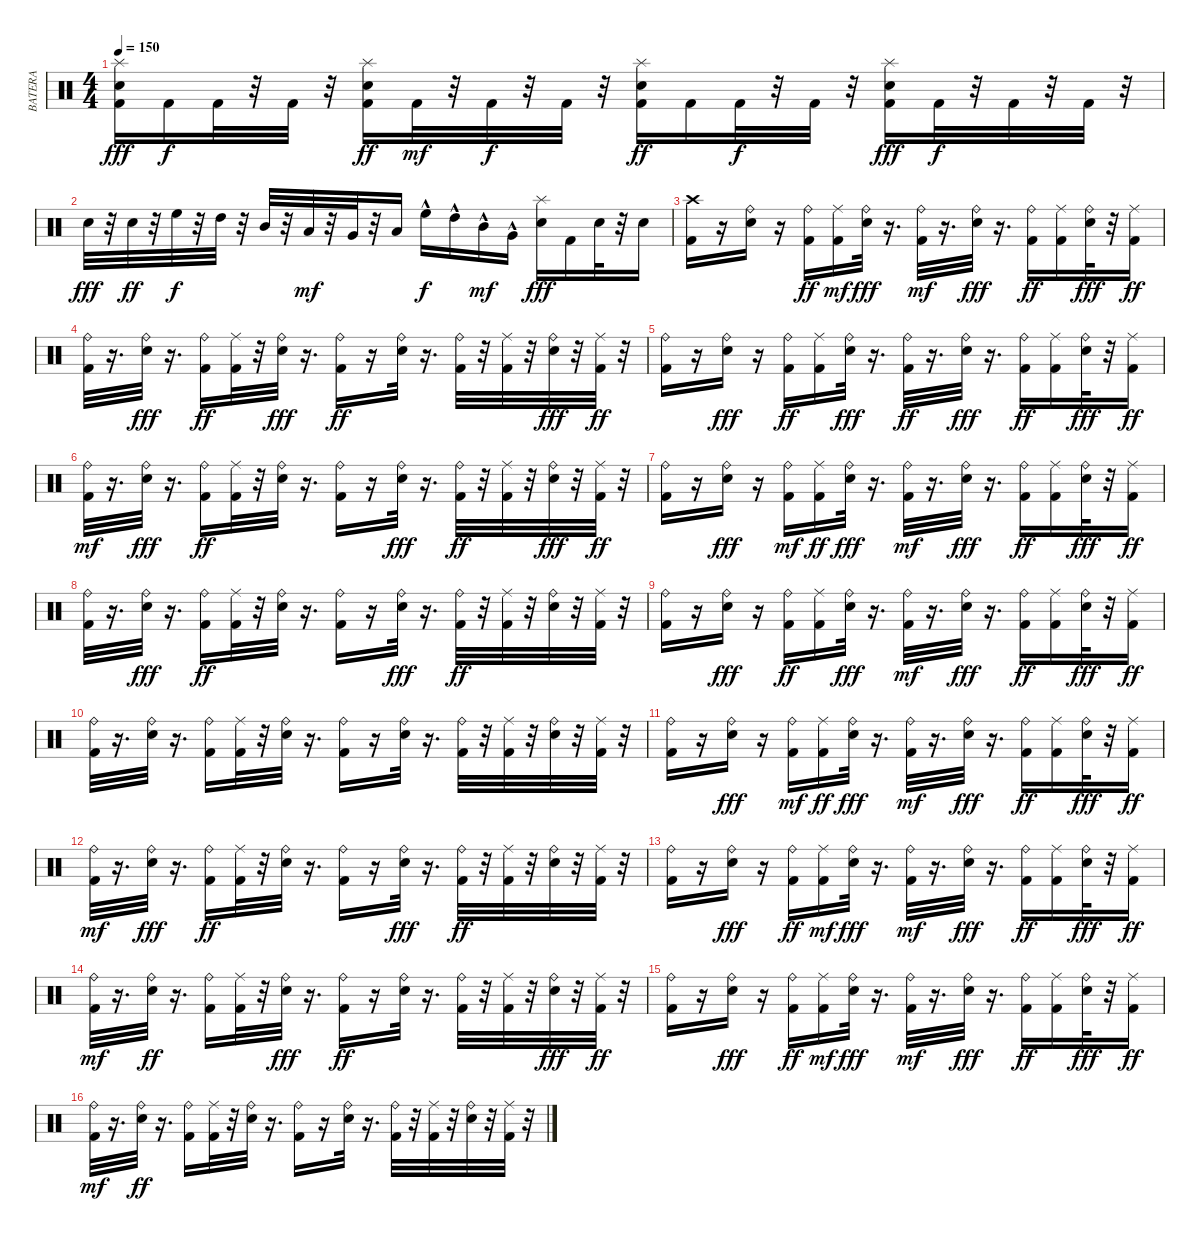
\track ("BATERA" "BATERA") {instrument percussion}
\staff {score}
\articulation defaults
\ts (4 4)
\tempo 150
\clef neutral
\ks c
("Kick (hit) 2" "Electric Snare (hit)" "Splash (hit)").16{dy fff} "Kick (hit) 2".16{dy f} "Kick (hit) 2".32 r.32 "Kick (hit) 2".32 r.32 ("Splash (hit)" "Electric Snare (hit)" "Kick (hit) 2").16{dy ff} "Kick (hit) 2".32{dy mf} r.32 "Kick (hit) 2".32{dy f} r.32 "Kick (hit) 2".32 r.32 ("Splash (hit)" "Electric Snare (hit)" "Kick (hit) 2").16{dy ff} "Kick (hit) 2".16 "Kick (hit) 2".32{dy f} r.32 "Kick (hit) 2".32 r.32 ("Kick (hit) 2" "Splash (hit)" "Electric Snare (hit)").16{dy fff} "Kick (hit) 2".32{dy f} r.32 "Kick (hit) 2".32 r.32 "Kick (hit) 2".32 r.32 |
"Electric Snare (hit)".32{dy fff} r.32 "Electric Snare (hit)".32{dy ff} r.32 "High Floor Tom (hit)".32{dy f} r.32 "High Tom (hit)".32 r.32 "Mid Tom (hit)".32 r.32 "Low Tom (hit)".32{dy mf} r.32 "Very Low Tom (hit)".32 r.32 "Low Floor Tom (hit)".16 "High Floor Tom (hit)"{hac}.16{dy f} "High Tom (hit)"{hac}.16 "Mid Tom (hit)"{hac}.16{dy mf} "Very Low Tom (hit)"{hac}.16 ("Splash (hit)" "Electric Snare (hit)").16{dy fff} "Kick (hit) 2".16 "Electric Snare (hit)".32 r.32 "Electric Snare (hit)".16 |
("Kick (hit) 2" "Crash high (hit)").16 r.16 ("Electric Snare (hit)" "Ride (bell)").16 r.16 ("Ride (bell)" "Kick (hit) 2").16{dy ff} ("Kick (hit) 2" "Ride (middle)").16{dy mf} ("Ride (bell)" "Electric Snare (hit)").32{dy fff} r.16{d} ("Kick (hit) 2" "Ride (bell)").32{dy mf} r.16{d} ("Electric Snare (hit)" "Ride (bell)").32{dy fff} r.16{d} ("Kick (hit) 2" "Ride (bell)").16{dy ff} ("Kick (hit) 2" "Ride (middle)").16 ("Electric Snare (hit)" "Ride (bell)").32{dy fff} r.32 ("Ride (middle)" "Kick (hit) 2").16{dy ff} |
("Ride (bell)" "Kick (hit) 2").32 r.16{d} ("Ride (bell)" "Electric Snare (hit)").32{dy fff} r.16{d} ("Ride (bell)" "Kick (hit) 2").16{dy ff} ("Kick (hit) 2" "Ride (middle)").32 r.32 ("Ride (bell)" "Electric Snare (hit)").32{dy fff} r.16{d} ("Kick (hit) 2" "Ride (bell)").16{dy ff} r.16 ("Electric Snare (hit)" "Ride (bell)").32 r.16{d} ("Ride (bell)" "Kick (hit) 2").32 r.32 ("Kick (hit) 2" "Ride (middle)").32 r.32 ("Ride (bell)" "Electric Snare (hit)").32{dy fff} r.32 ("Ride (middle)" "Kick (hit) 2").32{dy ff} r.32 |
("Ride (bell)" "Kick (hit) 2").16 r.16 ("Electric Snare (hit)" "Ride (bell)").16{dy fff} r.16 ("Ride (bell)" "Kick (hit) 2").16{dy ff} ("Ride (middle)" "Kick (hit) 2").16 ("Electric Snare (hit)" "Ride (bell)").32{dy fff} r.16{d} ("Ride (bell)" "Kick (hit) 2").32{dy ff} r.16{d} ("Ride (bell)" "Electric Snare (hit)").32{dy fff} r.16{d} ("Ride (bell)" "Kick (hit) 2").16{dy ff} ("Kick (hit) 2" "Ride (middle)").16 ("Ride (bell)" "Electric Snare (hit)").32{dy fff} r.32 ("Ride (middle)" "Kick (hit) 2").16{dy ff} |
("Kick (hit) 2" "Ride (bell)").32{dy mf} r.16{d} ("Ride (bell)" "Electric Snare (hit)").32{dy fff} r.16{d} ("Ride (bell)" "Kick (hit) 2").16{dy ff} ("Kick (hit) 2" "Ride (middle)").32 r.32 ("Electric Snare (hit)" "Ride (bell)").32 r.16{d} ("Kick (hit) 2" "Ride (bell)").16 r.16 ("Ride (bell)" "Electric Snare (hit)").32{dy fff} r.16{d} ("Kick (hit) 2" "Ride (bell)").32{dy ff} r.32 ("Kick (hit) 2" "Ride (middle)").32 r.32 ("Ride (bell)" "Electric Snare (hit)").32{dy fff} r.32 ("Kick (hit) 2" "Ride (middle)").32{dy ff} r.32 |
("Ride (bell)" "Kick (hit) 2").16 r.16 ("Electric Snare (hit)" "Ride (bell)").16{dy fff} r.16 ("Kick (hit) 2" "Ride (bell)").16{dy mf} ("Ride (middle)" "Kick (hit) 2").16{dy ff} ("Electric Snare (hit)" "Ride (bell)").32{dy fff} r.16{d} ("Kick (hit) 2" "Ride (bell)").32{dy mf} r.16{d} ("Ride (bell)" "Electric Snare (hit)").32{dy fff} r.16{d} ("Kick (hit) 2" "Ride (bell)").16{dy ff} ("Ride (middle)" "Kick (hit) 2").16 ("Electric Snare (hit)" "Ride (bell)").32{dy fff} r.32 ("Kick (hit) 2" "Ride (middle)").16{dy ff} |
("Ride (bell)" "Kick (hit) 2").32 r.16{d} ("Ride (bell)" "Electric Snare (hit)").32{dy fff} r.16{d} ("Kick (hit) 2" "Ride (bell)").16{dy ff} ("Kick (hit) 2" "Ride (middle)").32 r.32 ("Electric Snare (hit)" "Ride (bell)").32 r.16{d} ("Ride (bell)" "Kick (hit) 2").16 r.16 ("Ride (bell)" "Electric Snare (hit)").32{dy fff} r.16{d} ("Ride (bell)" "Kick (hit) 2").32{dy ff} r.32 ("Ride (middle)" "Kick (hit) 2").32 r.32 ("Electric Snare (hit)" "Ride (bell)").32 r.32 ("Ride (middle)" "Kick (hit) 2").32 r.32 |
("Ride (bell)" "Kick (hit) 2").16 r.16 ("Electric Snare (hit)" "Ride (bell)").16{dy fff} r.16 ("Ride (bell)" "Kick (hit) 2").16{dy ff} ("Ride (middle)" "Kick (hit) 2").16 ("Electric Snare (hit)" "Ride (bell)").32{dy fff} r.16{d} ("Kick (hit) 2" "Ride (bell)").32{dy mf} r.16{d} ("Electric Snare (hit)" "Ride (bell)").32{dy fff} r.16{d} ("Ride (bell)" "Kick (hit) 2").16{dy ff} ("Kick (hit) 2" "Ride (middle)").16 ("Electric Snare (hit)" "Ride (bell)").32{dy fff} r.32 ("Kick (hit) 2" "Ride (middle)").16{dy ff} |
("Ride (bell)" "Kick (hit) 2").32 r.16{d} ("Electric Snare (hit)" "Ride (bell)").32 r.16{d} ("Kick (hit) 2" "Ride (bell)").16 ("Ride (middle)" "Kick (hit) 2").32 r.32 ("Electric Snare (hit)" "Ride (bell)").32 r.16{d} ("Ride (bell)" "Kick (hit) 2").16 r.16 ("Electric Snare (hit)" "Ride (bell)").32 r.16{d} ("Ride (bell)" "Kick (hit) 2").32 r.32 ("Kick (hit) 2" "Ride (middle)").32 r.32 ("Electric Snare (hit)" "Ride (bell)").32 r.32 ("Ride (middle)" "Kick (hit) 2").32 r.32 |
("Kick (hit) 2" "Ride (bell)").16 r.16 ("Ride (bell)" "Electric Snare (hit)").16{dy fff} r.16 ("Kick (hit) 2" "Ride (bell)").16{dy mf} ("Ride (middle)" "Kick (hit) 2").16{dy ff} ("Ride (bell)" "Electric Snare (hit)").32{dy fff} r.16{d} ("Kick (hit) 2" "Ride (bell)").32{dy mf} r.16{d} ("Ride (bell)" "Electric Snare (hit)").32{dy fff} r.16{d} ("Kick (hit) 2" "Ride (bell)").16{dy ff} ("Ride (middle)" "Kick (hit) 2").16 ("Electric Snare (hit)" "Ride (bell)").32{dy fff} r.32 ("Ride (middle)" "Kick (hit) 2").16{dy ff} |
("Kick (hit) 2" "Ride (bell)").32{dy mf} r.16{d} ("Ride (bell)" "Electric Snare (hit)").32{dy fff} r.16{d} ("Kick (hit) 2" "Ride (bell)").16{dy ff} ("Ride (middle)" "Kick (hit) 2").32 r.32 ("Electric Snare (hit)" "Ride (bell)").32 r.16{d} ("Ride (bell)" "Kick (hit) 2").16 r.16 ("Ride (bell)" "Electric Snare (hit)").32{dy fff} r.16{d} ("Kick (hit) 2" "Ride (bell)").32{dy ff} r.32 ("Ride (middle)" "Kick (hit) 2").32 r.32 ("Electric Snare (hit)" "Ride (bell)").32 r.32 ("Ride (middle)" "Kick (hit) 2").32 r.32 |
("Ride (bell)" "Kick (hit) 2").16 r.16 ("Ride (bell)" "Electric Snare (hit)").16{dy fff} r.16 ("Ride (bell)" "Kick (hit) 2").16{dy ff} ("Kick (hit) 2" "Ride (middle)").16{dy mf} ("Ride (bell)" "Electric Snare (hit)").32{dy fff} r.16{d} ("Kick (hit) 2" "Ride (bell)").32{dy mf} r.16{d} ("Ride (bell)" "Electric Snare (hit)").32{dy fff} r.16{d} ("Kick (hit) 2" "Ride (bell)").16{dy ff} ("Ride (middle)" "Kick (hit) 2").16 ("Ride (bell)" "Electric Snare (hit)").32{dy fff} r.32 ("Kick (hit) 2" "Ride (middle)").16{dy ff} |
("Kick (hit) 2" "Ride (bell)").32{dy mf} r.16{d} ("Electric Snare (hit)" "Ride (bell)").32{dy ff} r.16{d} ("Ride (bell)" "Kick (hit) 2").16 ("Kick (hit) 2" "Ride (middle)").32 r.32 ("Ride (bell)" "Electric Snare (hit)").32{dy fff} r.16{d} ("Kick (hit) 2" "Ride (bell)").16{dy ff} r.16 ("Electric Snare (hit)" "Ride (bell)").32 r.16{d} ("Ride (bell)" "Kick (hit) 2").32 r.32 ("Kick (hit) 2" "Ride (middle)").32 r.32 ("Ride (bell)" "Electric Snare (hit)").32{dy fff} r.32 ("Kick (hit) 2" "Ride (middle)").32{dy ff} r.32 |
("Ride (bell)" "Kick (hit) 2").16 r.16 ("Electric Snare (hit)" "Ride (bell)").16{dy fff} r.16 ("Ride (bell)" "Kick (hit) 2").16{dy ff} ("Kick (hit) 2" "Ride (middle)").16{dy mf} ("Electric Snare (hit)" "Ride (bell)").32{dy fff} r.16{d} ("Kick (hit) 2" "Ride (bell)").32{dy mf} r.16{d} ("Electric Snare (hit)" "Ride (bell)").32{dy fff} r.16{d} ("Ride (bell)" "Kick (hit) 2").16{dy ff} ("Kick (hit) 2" "Ride (middle)").16 ("Ride (bell)" "Electric Snare (hit)").32{dy fff} r.32 ("Ride (middle)" "Kick (hit) 2").16{dy ff} |
("Kick (hit) 2" "Ride (bell)").32{dy mf} r.16{d} ("Electric Snare (hit)" "Ride (bell)").32{dy ff} r.16{d} ("Ride (bell)" "Kick (hit) 2").16 ("Ride (middle)" "Kick (hit) 2").32 r.32 ("Electric Snare (hit)" "Ride (bell)").32 r.16{d} ("Kick (hit) 2" "Ride (bell)").16 r.16 ("Electric Snare (hit)" "Ride (bell)").32 r.16{d} ("Kick (hit) 2" "Ride (bell)").32 r.32 ("Kick (hit) 2" "Ride (middle)").32 r.32 ("Electric Snare (hit)" "Ride (bell)").32 r.32 ("Ride (middle)" "Kick (hit) 2").32 r.32
